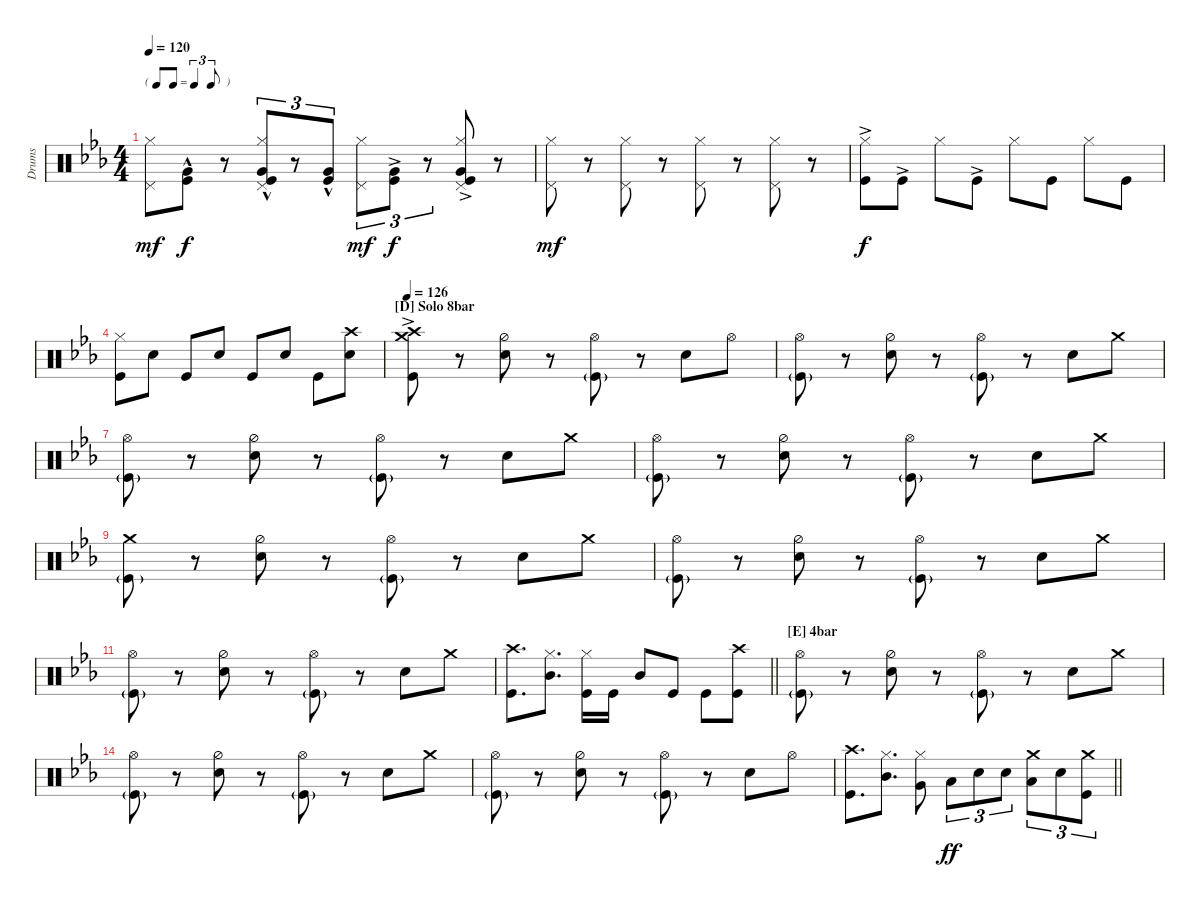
\bracketExtendMode nobrackets
\otherSystemsTrackNameOrientation horizontal
\defaultBarNumberDisplay FirstOfSystem
\track ("Drumkit" "Drums") {instrument percussion}
\staff {score}
\articulation defaults
\ts (4 4)
\tf triplet8th
\tempo 120
\clef neutral
\ks cminor
("Pedal Hi-Hat (hit)" "Hi-Hat (closed)").8{dy mf} ("Kick (hit)"{hac} "Very Low Tom (hit)").8{dy f} r.8 ("Kick (hit)"{hac} "Very Low Tom (hit)" "Pedal Hi-Hat (hit)" "Hi-Hat (closed)").8{tu (3 2)} r.8{tu (3 2)} ("Kick (hit)"{hac} "Very Low Tom (hit)").8{tu (3 2)} ("Pedal Hi-Hat (hit)" "Hi-Hat (closed)").8{tu (3 2) dy mf} ("Kick (hit)"{ac} "Very Low Tom (hit)").8{tu (3 2) dy f} r.8{tu (3 2)} ("Kick (hit)"{ac} "Very Low Tom (hit)" "Pedal Hi-Hat (hit)" "Hi-Hat (closed)").8 r.8 |
("Pedal Hi-Hat (hit)" "Hi-Hat (closed)").8{dy mf} r.8 ("Pedal Hi-Hat (hit)" "Hi-Hat (closed)").8 r.8 ("Pedal Hi-Hat (hit)" "Hi-Hat (closed)").8 r.8 ("Pedal Hi-Hat (hit)" "Hi-Hat (closed)").8 r.8 |
("Kick (hit)"{ac} "Hi-Hat (closed)").8{dy f} "Kick (hit)"{ac}.8 "Hi-Hat (closed)".8 "Kick (hit)"{ac}.8 "Hi-Hat (closed)".8 "Kick (hit)".8 "Hi-Hat (closed)".8 "Kick (hit)".8 |
("Kick (hit)" "Hi-Hat (closed)").8 "Snare (hit) 2".8 "Kick (hit)".8 "Snare (hit) 2".8 "Kick (hit)".8 "Snare (hit) 2".8 "Kick (hit)".8 ("Snare (hit) 2" "Crash high (hit)").8 |
\section ("D" "Solo 8bar")
\tempo 126
("Kick (hit)"{ac} "Crash medium (hit)" "Crash high (hit)"{ac}).8 r.8 ("Hi-Hat (half)" "Snare (hit) 2").8 r.8 ("Hi-Hat (open)" "Kick (hit)"{g}).8 r.8 "Snare (hit) 2".8 "Hi-Hat (open)".8 |
("Hi-Hat (open)" "Kick (hit)"{g}).8 r.8 ("Hi-Hat (half)" "Snare (hit) 2").8 r.8 ("Hi-Hat (open)" "Kick (hit)"{g}).8 r.8 "Snare (hit) 2".8 "Crash medium (hit)".8 |
("Hi-Hat (open)" "Kick (hit)"{g}).8 r.8 ("Hi-Hat (half)" "Snare (hit) 2").8 r.8 ("Hi-Hat (open)" "Kick (hit)"{g}).8 r.8 "Snare (hit) 2".8 "Crash medium (hit)".8 |
("Hi-Hat (open)" "Kick (hit)"{g}).8 r.8 ("Hi-Hat (half)" "Snare (hit) 2").8 r.8 ("Hi-Hat (open)" "Kick (hit)"{g}).8 r.8 "Snare (hit) 2".8 "Crash medium (hit)".8 |
("Crash medium (hit)" "Kick (hit)"{g}).8 r.8 ("Hi-Hat (half)" "Snare (hit) 2").8 r.8 ("Hi-Hat (open)" "Kick (hit)"{g}).8 r.8 "Snare (hit) 2".8 "Crash medium (hit)".8 |
("Hi-Hat (open)" "Kick (hit)"{g}).8 r.8 ("Hi-Hat (half)" "Snare (hit) 2").8 r.8 ("Hi-Hat (open)" "Kick (hit)"{g}).8 r.8 "Snare (hit) 2".8 "Crash medium (hit)".8 |
("Hi-Hat (open)" "Kick (hit)"{g}).8 r.8 ("Hi-Hat (half)" "Snare (hit) 2").8 r.8 ("Hi-Hat (open)" "Kick (hit)"{g}).8 r.8 "Snare (hit) 2".8 "Crash medium (hit)".8 |
\barLineRight lightlight
("Kick (hit)" "Crash high (hit)").8{d} ("Mid Tom (hit)" "Hi-Hat (closed)").8{d} ("Kick (hit)" "Hi-Hat (closed)").16 "Kick (hit)".16 "Mid Tom (hit)".8 "Kick (hit)".8 "Kick (hit)".8 ("Kick (hit)" "Crash high (hit)").8 |
\section ("E" "4bar")
("Hi-Hat (open)" "Kick (hit)"{g}).8 r.8 ("Hi-Hat (half)" "Snare (hit) 2").8 r.8 ("Hi-Hat (open)" "Kick (hit)"{g}).8 r.8 "Snare (hit) 2".8 "Crash medium (hit)".8 |
("Hi-Hat (open)" "Kick (hit)"{g}).8 r.8 ("Hi-Hat (half)" "Snare (hit) 2").8 r.8 ("Hi-Hat (open)" "Kick (hit)"{g}).8 r.8 "Snare (hit) 2".8 "Crash medium (hit)".8 |
("Hi-Hat (open)" "Kick (hit)"{g}).8 r.8 ("Hi-Hat (half)" "Snare (hit) 2").8 r.8 ("Hi-Hat (open)" "Kick (hit)"{g}).8 r.8 "Snare (hit) 2".8 "Hi-Hat (open)".8 |
\barLineRight lightlight
("Kick (hit)" "Crash high (hit)").8{d} ("Mid Tom (hit)" "Hi-Hat (closed)").8{d} ("Hi-Hat (closed)" "Very Low Tom (hit)").8 "Low Tom (hit)".8{tu (3 2) dy ff} "Snare (hit) 2".8{tu (3 2)} "Snare (hit) 2".8{tu (3 2)} ("Low Tom (hit)" "Crash medium (hit)").8{tu (3 2)} "Snare (hit) 2".8{tu (3 2)} ("Kick (hit)" "Crash medium (hit)").8{tu (3 2)}
